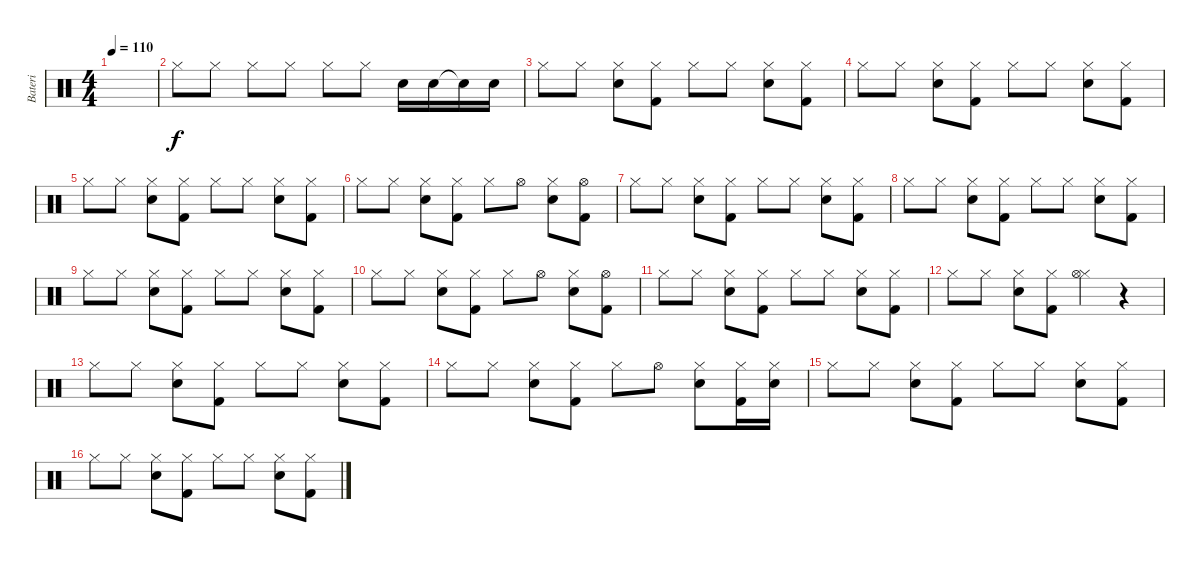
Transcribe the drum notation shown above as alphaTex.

\track ("Bateri" "Bateri") {instrument percussion}
\staff {score}
\articulation defaults
\ts (4 4)
\tempo 110
\clef neutral
\ks c
|
"Hi-Hat (closed)".8 "Hi-Hat (closed)".8 "Hi-Hat (closed)".8 "Hi-Hat (closed)".8 "Hi-Hat (closed)".8 "Hi-Hat (closed)".8 "Electric Snare (hit)".16 "Electric Snare (hit)".16 "Electric Snare (hit)"{t}.16 "Electric Snare (hit)".16 |
"Hi-Hat (closed)".8 "Hi-Hat (closed)".8 ("Electric Snare (hit)" "Hi-Hat (closed)").8 ("Kick (hit) 2" "Hi-Hat (closed)").8 "Hi-Hat (closed)".8 "Hi-Hat (closed)".8 ("Electric Snare (hit)" "Hi-Hat (closed)").8 ("Kick (hit) 2" "Hi-Hat (closed)").8 |
"Hi-Hat (closed)".8 "Hi-Hat (closed)".8 ("Electric Snare (hit)" "Hi-Hat (closed)").8 ("Kick (hit) 2" "Hi-Hat (closed)").8 "Hi-Hat (closed)".8 "Hi-Hat (closed)".8 ("Electric Snare (hit)" "Hi-Hat (closed)").8 ("Kick (hit) 2" "Hi-Hat (closed)").8 |
"Hi-Hat (closed)".8 "Hi-Hat (closed)".8 ("Electric Snare (hit)" "Hi-Hat (closed)").8 ("Kick (hit) 2" "Hi-Hat (closed)").8 "Hi-Hat (closed)".8 "Hi-Hat (closed)".8 ("Electric Snare (hit)" "Hi-Hat (closed)").8 ("Kick (hit) 2" "Hi-Hat (closed)").8 |
"Hi-Hat (closed)".8 "Hi-Hat (closed)".8 ("Electric Snare (hit)" "Hi-Hat (closed)").8 ("Kick (hit) 2" "Hi-Hat (closed)").8 "Hi-Hat (closed)".8 "Hi-Hat (open)".8 ("Electric Snare (hit)" "Hi-Hat (closed)").8 ("Kick (hit) 2" "Hi-Hat (open)").8 |
"Hi-Hat (closed)".8 "Hi-Hat (closed)".8 ("Electric Snare (hit)" "Hi-Hat (closed)").8 ("Kick (hit) 2" "Hi-Hat (closed)").8 "Hi-Hat (closed)".8 "Hi-Hat (closed)".8 ("Electric Snare (hit)" "Hi-Hat (closed)").8 ("Kick (hit) 2" "Hi-Hat (closed)").8 |
"Hi-Hat (closed)".8 "Hi-Hat (closed)".8 ("Electric Snare (hit)" "Hi-Hat (closed)").8 ("Kick (hit) 2" "Hi-Hat (closed)").8 "Hi-Hat (closed)".8 "Hi-Hat (closed)".8 ("Electric Snare (hit)" "Hi-Hat (closed)").8 ("Kick (hit) 2" "Hi-Hat (closed)").8 |
"Hi-Hat (closed)".8 "Hi-Hat (closed)".8 ("Electric Snare (hit)" "Hi-Hat (closed)").8 ("Kick (hit) 2" "Hi-Hat (closed)").8 "Hi-Hat (closed)".8 "Hi-Hat (closed)".8 ("Electric Snare (hit)" "Hi-Hat (closed)").8 ("Kick (hit) 2" "Hi-Hat (closed)").8 |
"Hi-Hat (closed)".8 "Hi-Hat (closed)".8 ("Electric Snare (hit)" "Hi-Hat (closed)").8 ("Kick (hit) 2" "Hi-Hat (closed)").8 "Hi-Hat (closed)".8 "Hi-Hat (open)".8 ("Electric Snare (hit)" "Hi-Hat (closed)").8 ("Kick (hit) 2" "Hi-Hat (open)").8 |
"Hi-Hat (closed)".8 "Hi-Hat (closed)".8 ("Electric Snare (hit)" "Hi-Hat (closed)").8 ("Kick (hit) 2" "Hi-Hat (closed)").8 "Hi-Hat (closed)".8 "Hi-Hat (closed)".8 ("Electric Snare (hit)" "Hi-Hat (closed)").8 ("Kick (hit) 2" "Hi-Hat (closed)").8 |
"Hi-Hat (closed)".8 "Hi-Hat (closed)".8 ("Electric Snare (hit)" "Hi-Hat (closed)").8 ("Kick (hit) 2" "Hi-Hat (closed)").8 ("Hi-Hat (closed)" "Hi-Hat (open)").4 r.4 |
"Hi-Hat (closed)".8 "Hi-Hat (closed)".8 ("Electric Snare (hit)" "Hi-Hat (closed)").8 ("Kick (hit) 2" "Hi-Hat (closed)").8 "Hi-Hat (closed)".8 "Hi-Hat (closed)".8 ("Electric Snare (hit)" "Hi-Hat (closed)").8 ("Kick (hit) 2" "Hi-Hat (closed)").8 |
"Hi-Hat (closed)".8 "Hi-Hat (closed)".8 ("Electric Snare (hit)" "Hi-Hat (closed)").8 ("Kick (hit) 2" "Hi-Hat (closed)").8 "Hi-Hat (closed)".8 "Hi-Hat (open)".8 ("Electric Snare (hit)" "Hi-Hat (closed)").8 ("Kick (hit) 2" "Hi-Hat (closed)").16 ("Electric Snare (hit)" "Hi-Hat (closed)").16 |
"Hi-Hat (closed)".8 "Hi-Hat (closed)".8 ("Electric Snare (hit)" "Hi-Hat (closed)").8 ("Kick (hit) 2" "Hi-Hat (closed)").8 "Hi-Hat (closed)".8 "Hi-Hat (closed)".8 ("Electric Snare (hit)" "Hi-Hat (closed)").8 ("Kick (hit) 2" "Hi-Hat (closed)").8 |
"Hi-Hat (closed)".8 "Hi-Hat (closed)".8 ("Electric Snare (hit)" "Hi-Hat (closed)").8 ("Kick (hit) 2" "Hi-Hat (closed)").8 "Hi-Hat (closed)".8 "Hi-Hat (closed)".8 ("Electric Snare (hit)" "Hi-Hat (closed)").8 ("Kick (hit) 2" "Hi-Hat (closed)").8
